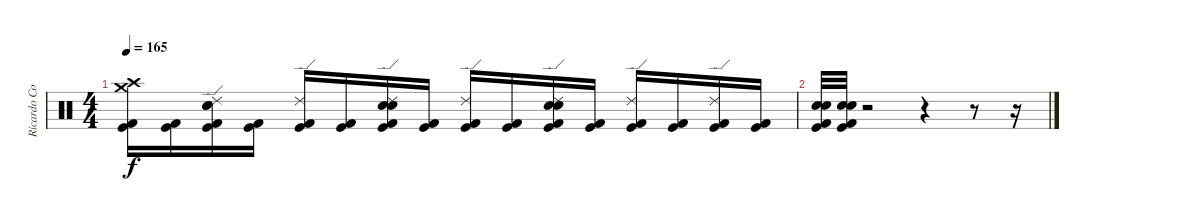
\track ("Ricardo Confessori" "Ricardo Co") {instrument percussion}
\staff {score}
\articulation defaults
\ts (4 4)
\tempo 165
\clef neutral
\ks c
("Crash high (hit)" "Crash medium (hit)" "Kick (hit) 2" "Kick (hit)").16{dy f} ("Kick (hit) 2" "Kick (hit)").16 ("Ride (edge) 2" "Snare (hit) 2" "Electric Snare (hit)" "Kick (hit) 2" "Kick (hit)").16 ("Kick (hit) 2" "Kick (hit)").16 ("Ride (edge) 2" "Kick (hit) 2" "Kick (hit)").16 ("Kick (hit) 2" "Kick (hit)").16 ("Ride (edge) 2" "Electric Snare (hit)" "Snare (hit) 2" "Kick (hit) 2" "Kick (hit)").16 ("Kick (hit) 2" "Kick (hit)").16 ("Ride (edge) 2" "Kick (hit) 2" "Kick (hit)").16 ("Kick (hit) 2" "Kick (hit)").16 ("Ride (edge) 2" "Snare (hit) 2" "Electric Snare (hit)" "Kick (hit) 2" "Kick (hit)").16 ("Kick (hit) 2" "Kick (hit)").16 ("Ride (edge) 2" "Kick (hit) 2" "Kick (hit)").16 ("Kick (hit) 2" "Kick (hit)").16 ("Ride (edge) 2" "Kick (hit) 2" "Kick (hit)").16 ("Kick (hit) 2" "Kick (hit)").16 |
("Electric Snare (hit)" "Kick (hit)" "Snare (hit) 2" "Kick (hit) 2").32 ("Electric Snare (hit)" "Snare (hit) 2" "Kick (hit)" "Kick (hit) 2").32 r.2 r.4 r.8 r.16
